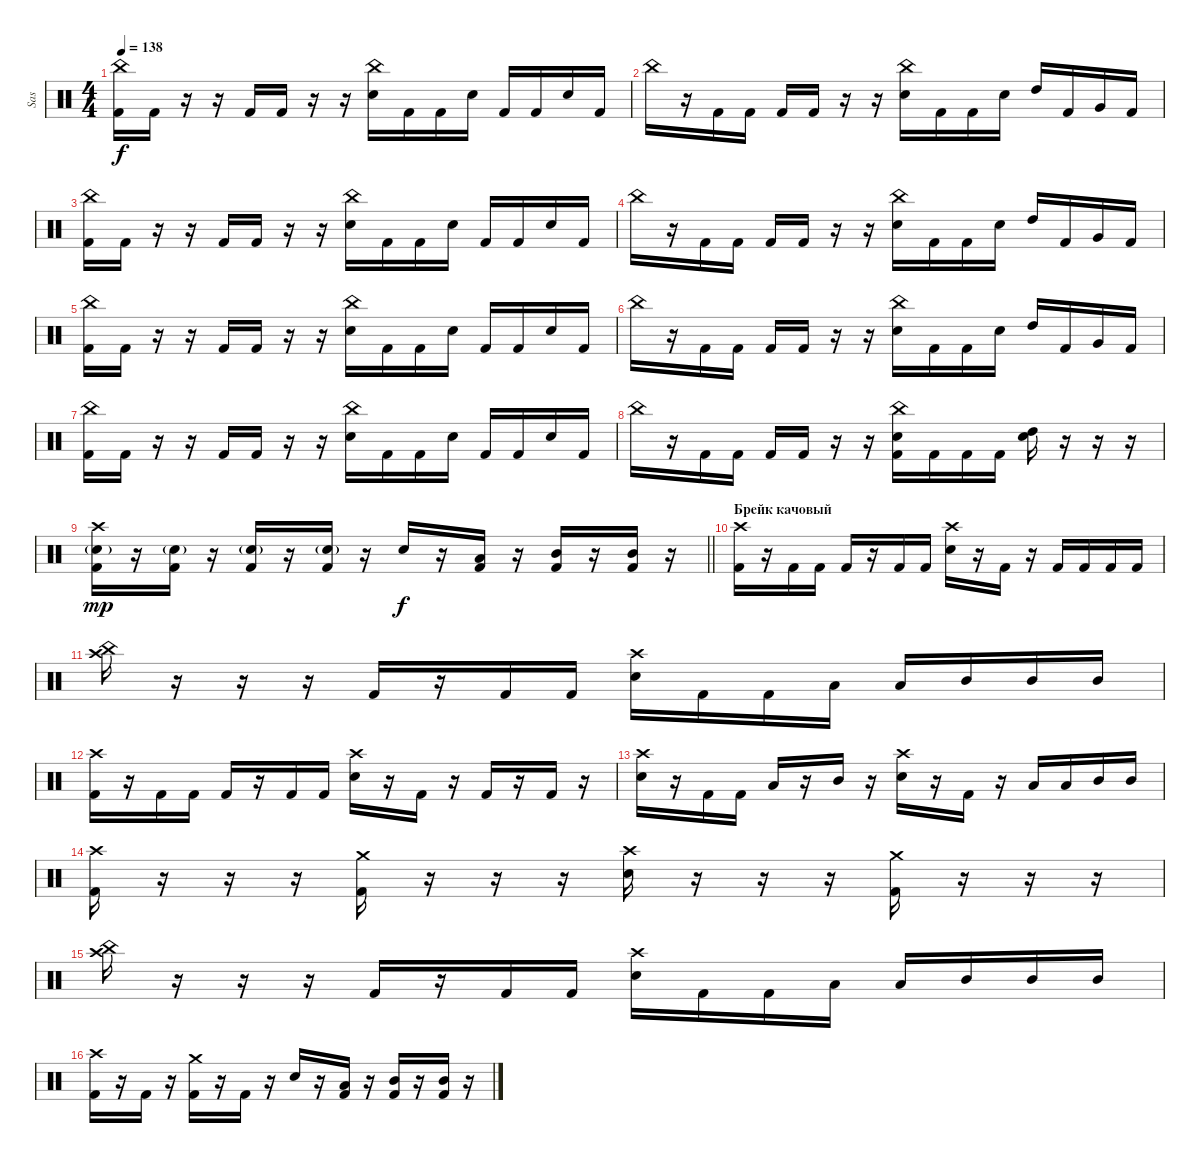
\track ("Sas" "Sas") {instrument percussion}
\staff {score}
\articulation defaults
\ts (4 4)
\tempo 138
\clef neutral
\ks c
("China (hit)" "Kick (hit) 2").16{dy f} "Kick (hit) 2".16 r.16 r.16 "Kick (hit) 2".16 "Kick (hit) 2".16 r.16 r.16 ("China (hit)" "Snare (hit) 2").16 "Kick (hit) 2".16 "Kick (hit) 2".16 "Snare (hit) 2".16 "Kick (hit) 2".16 "Kick (hit) 2".16 "Snare (hit) 2".16 "Kick (hit) 2".16 |
"China (hit)".16 r.16 "Kick (hit) 2".16 "Kick (hit) 2".16 "Kick (hit) 2".16 "Kick (hit) 2".16 r.16 r.16 ("China (hit)" "Snare (hit) 2").16 "Kick (hit) 2".16 "Kick (hit) 2".16 "Snare (hit) 2".16 "High Tom (hit)".16 "Kick (hit) 2".16 "Very Low Tom (hit)".16 "Kick (hit) 2".16 |
("China (hit)" "Kick (hit) 2").16 "Kick (hit) 2".16 r.16 r.16 "Kick (hit) 2".16 "Kick (hit) 2".16 r.16 r.16 ("China (hit)" "Snare (hit) 2").16 "Kick (hit) 2".16 "Kick (hit) 2".16 "Snare (hit) 2".16 "Kick (hit) 2".16 "Kick (hit) 2".16 "Snare (hit) 2".16 "Kick (hit) 2".16 |
"China (hit)".16 r.16 "Kick (hit) 2".16 "Kick (hit) 2".16 "Kick (hit) 2".16 "Kick (hit) 2".16 r.16 r.16 ("China (hit)" "Snare (hit) 2").16 "Kick (hit) 2".16 "Kick (hit) 2".16 "Snare (hit) 2".16 "High Tom (hit)".16 "Kick (hit) 2".16 "Very Low Tom (hit)".16 "Kick (hit) 2".16 |
("China (hit)" "Kick (hit) 2").16 "Kick (hit) 2".16 r.16 r.16 "Kick (hit) 2".16 "Kick (hit) 2".16 r.16 r.16 ("China (hit)" "Snare (hit) 2").16 "Kick (hit) 2".16 "Kick (hit) 2".16 "Snare (hit) 2".16 "Kick (hit) 2".16 "Kick (hit) 2".16 "Snare (hit) 2".16 "Kick (hit) 2".16 |
"China (hit)".16 r.16 "Kick (hit) 2".16 "Kick (hit) 2".16 "Kick (hit) 2".16 "Kick (hit) 2".16 r.16 r.16 ("China (hit)" "Snare (hit) 2").16 "Kick (hit) 2".16 "Kick (hit) 2".16 "Snare (hit) 2".16 "High Tom (hit)".16 "Kick (hit) 2".16 "Very Low Tom (hit)".16 "Kick (hit) 2".16 |
("China (hit)" "Kick (hit) 2").16 "Kick (hit) 2".16 r.16 r.16 "Kick (hit) 2".16 "Kick (hit) 2".16 r.16 r.16 ("China (hit)" "Snare (hit) 2").16 "Kick (hit) 2".16 "Kick (hit) 2".16 "Snare (hit) 2".16 "Kick (hit) 2".16 "Kick (hit) 2".16 "Snare (hit) 2".16 "Kick (hit) 2".16 |
"China (hit)".16 r.16 "Kick (hit) 2".16 "Kick (hit) 2".16 "Kick (hit) 2".16 "Kick (hit) 2".16 r.16 r.16 ("China (hit)" "Snare (hit) 2" "Kick (hit) 2").16 "Kick (hit) 2".16 "Kick (hit) 2".16 "Kick (hit) 2".16 ("High Tom (hit)" "Snare (hit) 2").16 r.16 r.16 r.16 |
\barLineRight lightlight
("Crash high (hit)" "Snare (hit) 2"{g} "Kick (hit) 2").16{dy mp} r.16 ("Snare (hit) 2"{g} "Kick (hit) 2").16 r.16 ("Snare (hit) 2"{g} "Kick (hit) 2").16 r.16 ("Snare (hit) 2"{g} "Kick (hit) 2").16 r.16 "Snare (hit) 2".16{dy f} r.16 ("Low Tom (hit)" "Kick (hit) 2").16 r.16 ("Mid Tom (hit)" "Kick (hit) 2").16 r.16 ("Mid Tom (hit)" "Kick (hit) 2").16 r.16 |
\section ("" "Брейк качовый")
("Crash high (hit)" "Kick (hit) 2").16 r.16 "Kick (hit) 2".16 "Kick (hit) 2".16 "Kick (hit) 2".16 r.16 "Kick (hit) 2".16 "Kick (hit) 2".16 ("Crash high (hit)" "Snare (hit) 2").16 r.16 "Kick (hit) 2".16 r.16 "Kick (hit) 2".16 "Kick (hit) 2".16 "Kick (hit) 2".16 "Kick (hit) 2".16 |
("China (hit)" "Crash high (hit)").16 r.16 r.16 r.16 "Kick (hit) 2".16 r.16 "Kick (hit) 2".16 "Kick (hit) 2".16 ("Crash high (hit)" "Snare (hit) 2").16 "Kick (hit) 2".16 "Kick (hit) 2".16 "Low Tom (hit)".16 "Low Tom (hit)".16 "Mid Tom (hit)".16 "Mid Tom (hit)".16 "Mid Tom (hit)".16 |
("Crash high (hit)" "Kick (hit) 2").16 r.16 "Kick (hit) 2".16 "Kick (hit) 2".16 "Kick (hit) 2".16 r.16 "Kick (hit) 2".16 "Kick (hit) 2".16 ("Crash high (hit)" "Snare (hit) 2").16 r.16 "Kick (hit) 2".16 r.16 "Kick (hit) 2".16 r.16 "Kick (hit) 2".16 r.16 |
("Crash high (hit)" "Snare (hit) 2").16 r.16 "Kick (hit) 2".16 "Kick (hit) 2".16 "Low Tom (hit)".16 r.16 "Mid Tom (hit)".16 r.16 ("Crash high (hit)" "Snare (hit) 2").16 r.16 "Kick (hit) 2".16 r.16 "Low Tom (hit)".16 "Low Tom (hit)".16 "Mid Tom (hit)".16 "Mid Tom (hit)".16 |
("Crash high (hit)" "Kick (hit) 2").16 r.16 r.16 r.16 ("Crash medium (hit)" "Kick (hit) 2").16 r.16 r.16 r.16 ("Crash high (hit)" "Snare (hit) 2").16 r.16 r.16 r.16 ("Crash medium (hit)" "Kick (hit) 2").16 r.16 r.16 r.16 |
("China (hit)" "Crash high (hit)").16 r.16 r.16 r.16 "Kick (hit) 2".16 r.16 "Kick (hit) 2".16 "Kick (hit) 2".16 ("Crash high (hit)" "Snare (hit) 2").16 "Kick (hit) 2".16 "Kick (hit) 2".16 "Low Tom (hit)".16 "Low Tom (hit)".16 "Mid Tom (hit)".16 "Mid Tom (hit)".16 "Mid Tom (hit)".16 |
("Crash high (hit)" "Kick (hit) 2").16 r.16 "Kick (hit) 2".16 r.16 ("Crash medium (hit)" "Kick (hit) 2").16 r.16 "Kick (hit) 2".16 r.16 "Snare (hit) 2".16 r.16 ("Low Tom (hit)" "Kick (hit) 2").16 r.16 ("Mid Tom (hit)" "Kick (hit) 2").16 r.16 ("Mid Tom (hit)" "Kick (hit) 2").16 r.16
